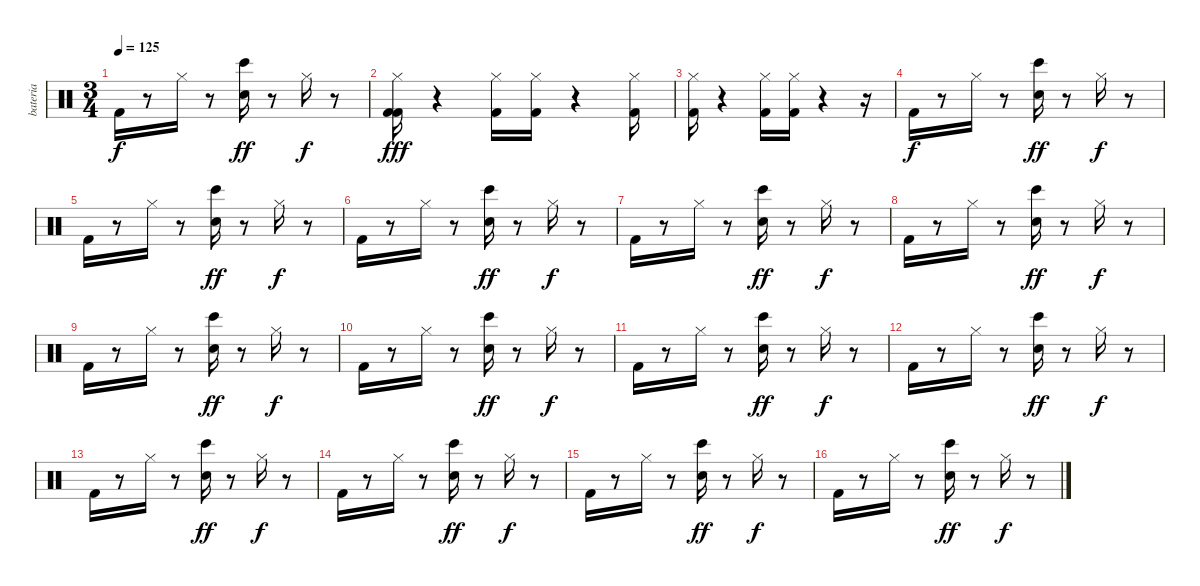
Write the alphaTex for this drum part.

\track ("bateria" "bateria") {instrument percussion}
\staff {score}
\articulation defaults
\ts (3 4)
\tempo 125
\clef neutral
\ks c "Kick (hit) 2".16{dy f volume 15 balance 8}
r.8 "Hi-Hat (closed)".16 r.8 ("Bongo High (hit)" "Snare (hit) 2").16{dy ff} r.8 "Hi-Hat (closed)".16{dy f volume 15 balance 8} r.8 |
("Hi-Hat (closed)" "Kick (hit) 2" "Kick (hit) 2").16{dy fff} r.4 ("Kick (hit) 2" "Hi-Hat (closed)").16{volume 15 balance 8} ("Kick (hit) 2" "Hi-Hat (closed)").16 r.4 ("Kick (hit) 2" "Hi-Hat (closed)").16{volume 15} |
("Kick (hit) 2" "Hi-Hat (closed)").16{balance 8} r.4 ("Kick (hit) 2" "Hi-Hat (closed)").16 ("Kick (hit) 2" "Hi-Hat (closed)").16 r.4 r.16 |
"Kick (hit) 2".16{dy f volume 15 balance 8} r.8 "Hi-Hat (closed)".16 r.8 ("Bongo High (hit)" "Snare (hit) 2").16{dy ff} r.8 "Hi-Hat (closed)".16{dy f volume 15 balance 8} r.8 |
"Kick (hit) 2".16 r.8 "Hi-Hat (closed)".16 r.8 ("Snare (hit) 2" "Bongo High (hit)").16{dy ff volume 15 balance 8} r.8 "Hi-Hat (closed)".16{dy f} r.8 |
"Kick (hit) 2".16{volume 15 balance 8} r.8 "Hi-Hat (closed)".16 r.8 ("Bongo High (hit)" "Snare (hit) 2").16{dy ff} r.8 "Hi-Hat (closed)".16{dy f volume 15 balance 8} r.8 |
"Kick (hit) 2".16{volume 15 balance 8} r.8 "Hi-Hat (closed)".16 r.8 ("Bongo High (hit)" "Snare (hit) 2").16{dy ff} r.8 "Hi-Hat (closed)".16{dy f volume 15 balance 8} r.8 |
"Kick (hit) 2".16 r.8 "Hi-Hat (closed)".16 r.8 ("Snare (hit) 2" "Bongo High (hit)").16{dy ff volume 15 balance 8} r.8 "Hi-Hat (closed)".16{dy f} r.8 |
"Kick (hit) 2".16{volume 15 balance 8} r.8 "Hi-Hat (closed)".16 r.8 ("Bongo High (hit)" "Snare (hit) 2").16{dy ff} r.8 "Hi-Hat (closed)".16{dy f volume 15 balance 8} r.8 |
"Kick (hit) 2".16{volume 15 balance 8} r.8 "Hi-Hat (closed)".16 r.8 ("Bongo High (hit)" "Snare (hit) 2").16{dy ff} r.8 "Hi-Hat (closed)".16{dy f volume 15 balance 8} r.8 |
"Kick (hit) 2".16 r.8 "Hi-Hat (closed)".16 r.8 ("Snare (hit) 2" "Bongo High (hit)").16{dy ff volume 15 balance 8} r.8 "Hi-Hat (closed)".16{dy f} r.8 |
"Kick (hit) 2".16{volume 15 balance 8} r.8 "Hi-Hat (closed)".16 r.8 ("Bongo High (hit)" "Snare (hit) 2").16{dy ff} r.8 "Hi-Hat (closed)".16{dy f volume 15 balance 8} r.8 |
"Kick (hit) 2".16{volume 15 balance 8} r.8 "Hi-Hat (closed)".16 r.8 ("Bongo High (hit)" "Snare (hit) 2").16{dy ff} r.8 "Hi-Hat (closed)".16{dy f volume 15 balance 8} r.8 |
"Kick (hit) 2".16 r.8 "Hi-Hat (closed)".16 r.8 ("Snare (hit) 2" "Bongo High (hit)").16{dy ff volume 15 balance 8} r.8 "Hi-Hat (closed)".16{dy f} r.8 |
"Kick (hit) 2".16{volume 15 balance 8} r.8 "Hi-Hat (closed)".16 r.8 ("Bongo High (hit)" "Snare (hit) 2").16{dy ff} r.8 "Hi-Hat (closed)".16{dy f volume 15 balance 8} r.8 |
"Kick (hit) 2".16{volume 15 balance 8} r.8 "Hi-Hat (closed)".16 r.8 ("Bongo High (hit)" "Snare (hit) 2").16{dy ff} r.8 "Hi-Hat (closed)".16{dy f volume 15 balance 8} r.8
